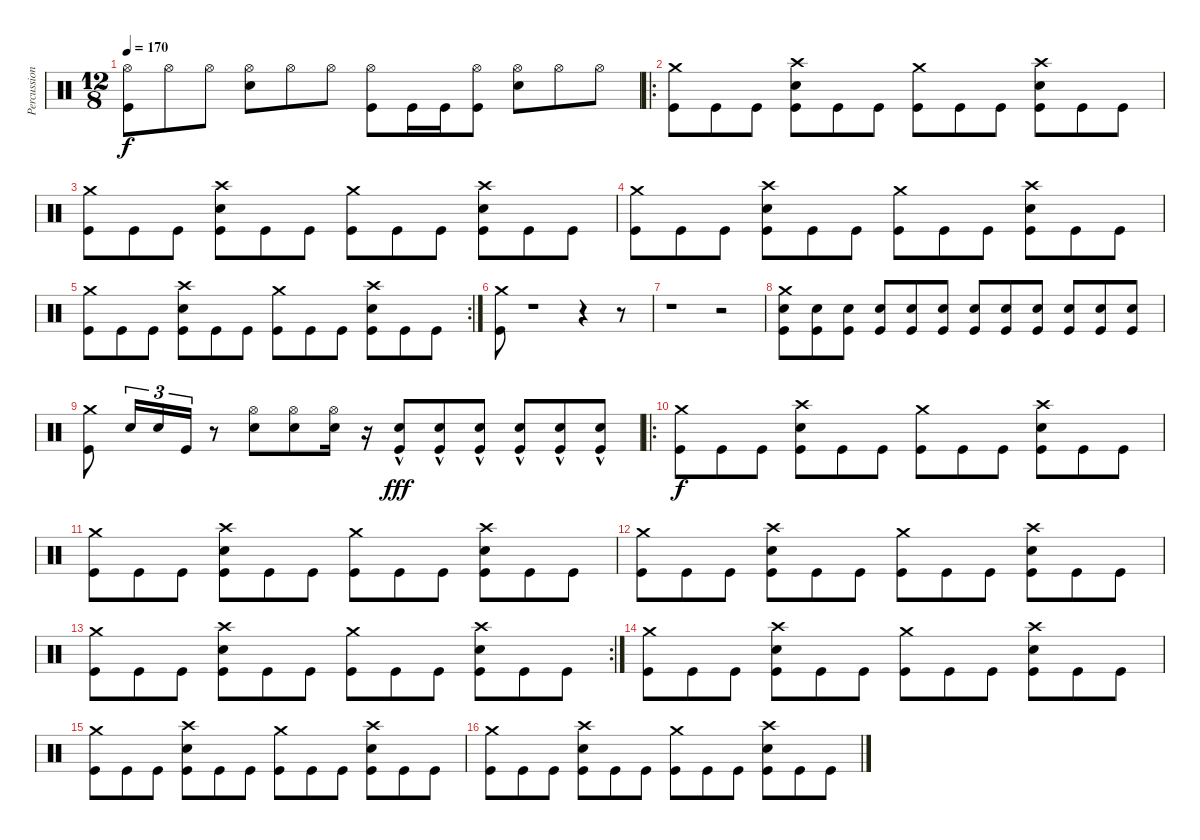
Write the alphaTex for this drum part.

\track ("Percussion" "Percussion") {instrument percussion}
\staff {score}
\articulation defaults
\ts (12 8)
\tempo 170
\clef neutral
\ks c
("Hi-Hat (open)" "Kick (hit)").8{dy f} "Hi-Hat (open)".8 "Hi-Hat (open)".8 ("Hi-Hat (open)" "Snare (hit) 2").8 "Hi-Hat (open)".8 "Hi-Hat (open)".8 ("Hi-Hat (open)" "Kick (hit)").8 "Kick (hit)".16 "Kick (hit)".16 ("Hi-Hat (open)" "Kick (hit)").8 ("Hi-Hat (open)" "Snare (hit) 2").8 "Hi-Hat (open)".8 "Hi-Hat (open)".8 |
\ro
("Crash medium (hit)" "Kick (hit)").8 "Kick (hit)".8 "Kick (hit)".8 ("Crash high (hit)" "Snare (hit) 2" "Kick (hit)").8 "Kick (hit)".8 "Kick (hit)".8 ("Crash medium (hit)" "Kick (hit)").8 "Kick (hit)".8 "Kick (hit)".8 ("Crash high (hit)" "Snare (hit) 2" "Kick (hit)").8 "Kick (hit)".8 "Kick (hit)".8 |
("Crash medium (hit)" "Kick (hit)").8 "Kick (hit)".8 "Kick (hit)".8 ("Crash high (hit)" "Snare (hit) 2" "Kick (hit)").8 "Kick (hit)".8 "Kick (hit)".8 ("Crash medium (hit)" "Kick (hit)").8 "Kick (hit)".8 "Kick (hit)".8 ("Crash high (hit)" "Snare (hit) 2" "Kick (hit)").8 "Kick (hit)".8 "Kick (hit)".8 |
("Crash medium (hit)" "Kick (hit)").8 "Kick (hit)".8 "Kick (hit)".8 ("Crash high (hit)" "Snare (hit) 2" "Kick (hit)").8 "Kick (hit)".8 "Kick (hit)".8 ("Crash medium (hit)" "Kick (hit)").8 "Kick (hit)".8 "Kick (hit)".8 ("Crash high (hit)" "Snare (hit) 2" "Kick (hit)").8 "Kick (hit)".8 "Kick (hit)".8 |
\rc 2
("Crash medium (hit)" "Kick (hit)").8 "Kick (hit)".8 "Kick (hit)".8 ("Crash high (hit)" "Snare (hit) 2" "Kick (hit)").8 "Kick (hit)".8 "Kick (hit)".8 ("Crash medium (hit)" "Kick (hit)").8 "Kick (hit)".8 "Kick (hit)".8 ("Crash high (hit)" "Snare (hit) 2" "Kick (hit)").8 "Kick (hit)".8 "Kick (hit)".8 |
("Crash medium (hit)" "Kick (hit)").8 r.1{volume 0} r.4 r.8 |
r.1 r.2 |
("Crash medium (hit)" "Snare (hit) 2" "Kick (hit)").8{volume 13} ("Snare (hit) 2" "Kick (hit)").8 ("Snare (hit) 2" "Kick (hit)").8 ("Snare (hit) 2" "Kick (hit)").8 ("Snare (hit) 2" "Kick (hit)").8 ("Snare (hit) 2" "Kick (hit)").8 ("Snare (hit) 2" "Kick (hit)").8 ("Snare (hit) 2" "Kick (hit)").8 ("Snare (hit) 2" "Kick (hit)").8 ("Snare (hit) 2" "Kick (hit)").8 ("Snare (hit) 2" "Kick (hit)").8 ("Snare (hit) 2" "Kick (hit)").8 |
("Crash medium (hit)" "Kick (hit)").8 "Snare (hit) 2".16{tu (3 2)} "Snare (hit) 2".16{tu (3 2)} "Kick (hit)".16{tu (3 2)} r.8 ("Hi-Hat (open)" "Snare (hit) 2").8 ("Hi-Hat (open)" "Snare (hit) 2").8 ("Hi-Hat (open)" "Snare (hit) 2").16 r.16{volume 8} ("Snare (hit) 2"{hac} "Kick (hit)"{hac}).8{dy fff volume 16} ("Snare (hit) 2"{hac} "Kick (hit)"{hac}).8 ("Snare (hit) 2"{hac} "Kick (hit)"{hac}).8 ("Snare (hit) 2"{hac} "Kick (hit)"{hac}).8 ("Snare (hit) 2"{hac} "Kick (hit)"{hac}).8 ("Snare (hit) 2"{hac} "Kick (hit)"{hac}).8 |
\ro
("Crash medium (hit)" "Kick (hit)").8{dy f} "Kick (hit)".8 "Kick (hit)".8 ("Crash high (hit)" "Snare (hit) 2" "Kick (hit)").8 "Kick (hit)".8 "Kick (hit)".8 ("Crash medium (hit)" "Kick (hit)").8 "Kick (hit)".8 "Kick (hit)".8 ("Crash high (hit)" "Snare (hit) 2" "Kick (hit)").8 "Kick (hit)".8 "Kick (hit)".8 |
("Crash medium (hit)" "Kick (hit)").8 "Kick (hit)".8 "Kick (hit)".8 ("Crash high (hit)" "Snare (hit) 2" "Kick (hit)").8 "Kick (hit)".8 "Kick (hit)".8 ("Crash medium (hit)" "Kick (hit)").8 "Kick (hit)".8 "Kick (hit)".8 ("Crash high (hit)" "Snare (hit) 2" "Kick (hit)").8 "Kick (hit)".8 "Kick (hit)".8 |
("Crash medium (hit)" "Kick (hit)").8 "Kick (hit)".8 "Kick (hit)".8 ("Crash high (hit)" "Snare (hit) 2" "Kick (hit)").8 "Kick (hit)".8 "Kick (hit)".8 ("Crash medium (hit)" "Kick (hit)").8 "Kick (hit)".8 "Kick (hit)".8 ("Crash high (hit)" "Snare (hit) 2" "Kick (hit)").8 "Kick (hit)".8 "Kick (hit)".8 |
\rc 2
("Crash medium (hit)" "Kick (hit)").8 "Kick (hit)".8 "Kick (hit)".8 ("Crash high (hit)" "Snare (hit) 2" "Kick (hit)").8 "Kick (hit)".8 "Kick (hit)".8 ("Crash medium (hit)" "Kick (hit)").8 "Kick (hit)".8 "Kick (hit)".8 ("Crash high (hit)" "Snare (hit) 2" "Kick (hit)").8 "Kick (hit)".8 "Kick (hit)".8 |
("Crash medium (hit)" "Kick (hit)").8 "Kick (hit)".8 "Kick (hit)".8 ("Crash high (hit)" "Snare (hit) 2" "Kick (hit)").8 "Kick (hit)".8 "Kick (hit)".8 ("Crash medium (hit)" "Kick (hit)").8 "Kick (hit)".8 "Kick (hit)".8 ("Crash high (hit)" "Snare (hit) 2" "Kick (hit)").8 "Kick (hit)".8 "Kick (hit)".8 |
("Crash medium (hit)" "Kick (hit)").8 "Kick (hit)".8 "Kick (hit)".8 ("Crash high (hit)" "Snare (hit) 2" "Kick (hit)").8 "Kick (hit)".8 "Kick (hit)".8 ("Crash medium (hit)" "Kick (hit)").8 "Kick (hit)".8 "Kick (hit)".8 ("Crash high (hit)" "Snare (hit) 2" "Kick (hit)").8 "Kick (hit)".8 "Kick (hit)".8 |
("Crash medium (hit)" "Kick (hit)").8 "Kick (hit)".8 "Kick (hit)".8 ("Crash high (hit)" "Snare (hit) 2" "Kick (hit)").8 "Kick (hit)".8 "Kick (hit)".8 ("Crash medium (hit)" "Kick (hit)").8 "Kick (hit)".8 "Kick (hit)".8 ("Crash high (hit)" "Snare (hit) 2" "Kick (hit)").8 "Kick (hit)".8 "Kick (hit)".8
